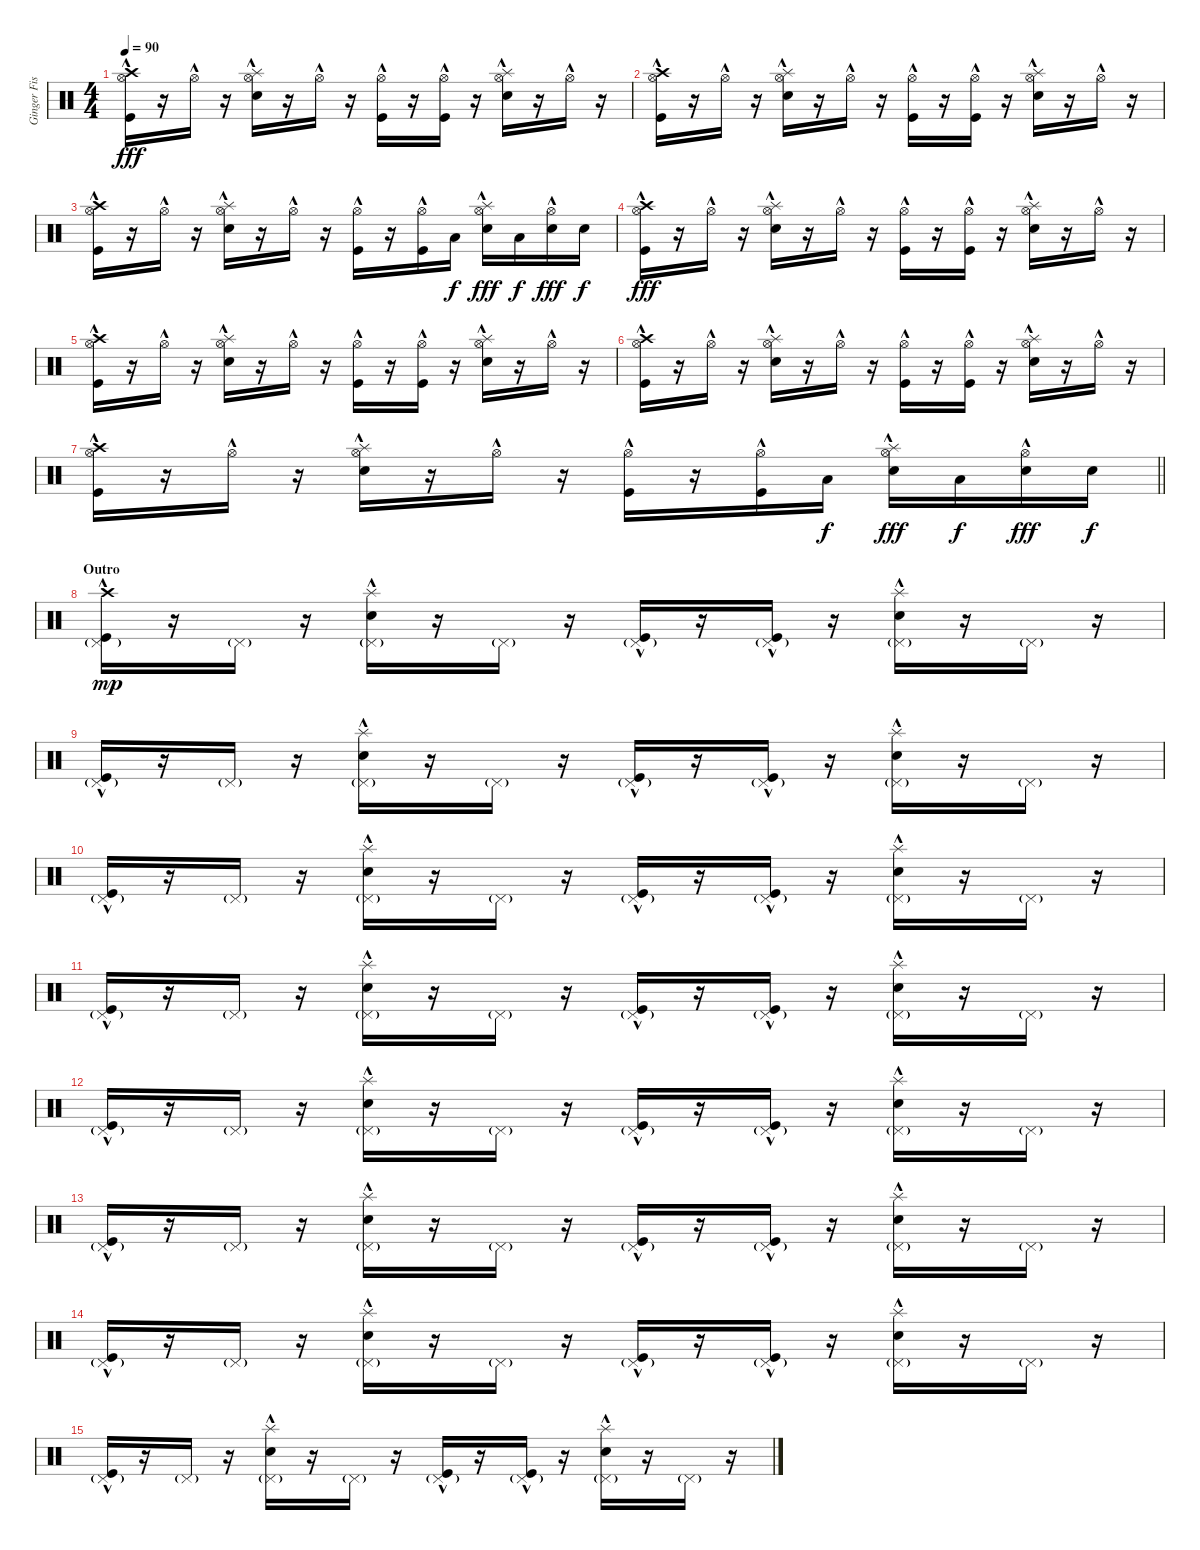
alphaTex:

\track ("Ginger Fish" "Ginger Fis") {instrument percussion}
\staff {score}
\articulation defaults
\ts (4 4)
\tempo 90
\clef neutral
\ks c
("Crash high (hit)" "Kick (hit)"{hac} "Hi-Hat (open)"{hac}).16{dy fff} r.16 "Hi-Hat (open)"{hac}.16 r.16 ("Splash (hit)"{hac} "Electric Snare (hit)"{hac} "Hi-Hat (open)"{hac}).16 r.16 "Hi-Hat (open)"{hac}.16 r.16 ("Kick (hit)"{hac} "Hi-Hat (open)"{hac}).16 r.16 ("Kick (hit)"{hac} "Hi-Hat (open)"{hac}).16 r.16 ("Splash (hit)"{hac} "Electric Snare (hit)"{hac} "Hi-Hat (open)"{hac}).16 r.16 "Hi-Hat (open)"{hac}.16 r.16 |
("Crash high (hit)" "Kick (hit)"{hac} "Hi-Hat (open)"{hac}).16 r.16 "Hi-Hat (open)"{hac}.16 r.16 ("Splash (hit)"{hac} "Electric Snare (hit)"{hac} "Hi-Hat (open)"{hac}).16 r.16 "Hi-Hat (open)"{hac}.16 r.16 ("Kick (hit)"{hac} "Hi-Hat (open)"{hac}).16 r.16 ("Kick (hit)"{hac} "Hi-Hat (open)"{hac}).16 r.16 ("Splash (hit)"{hac} "Electric Snare (hit)"{hac} "Hi-Hat (open)"{hac}).16 r.16 "Hi-Hat (open)"{hac}.16 r.16 |
("Crash high (hit)" "Kick (hit)"{hac} "Hi-Hat (open)"{hac}).16 r.16 "Hi-Hat (open)"{hac}.16 r.16 ("Splash (hit)"{hac} "Electric Snare (hit)"{hac} "Hi-Hat (open)"{hac}).16 r.16 "Hi-Hat (open)"{hac}.16 r.16 ("Kick (hit)"{hac} "Hi-Hat (open)"{hac}).16 r.16 ("Kick (hit)"{hac} "Hi-Hat (open)"{hac}).16 "Low Tom (hit)".16{dy f} ("Splash (hit)"{hac} "Electric Snare (hit)"{hac} "Hi-Hat (open)"{hac}).16{dy fff} "Low Floor Tom (hit)".16{dy f} ("Electric Snare (hit)"{hac} "Hi-Hat (open)"{hac}).16{dy fff} "Electric Snare (hit)".16{dy f} |
("Crash high (hit)" "Kick (hit)"{hac} "Hi-Hat (open)"{hac}).16{dy fff} r.16 "Hi-Hat (open)"{hac}.16 r.16 ("Splash (hit)"{hac} "Electric Snare (hit)"{hac} "Hi-Hat (open)"{hac}).16 r.16 "Hi-Hat (open)"{hac}.16 r.16 ("Kick (hit)"{hac} "Hi-Hat (open)"{hac}).16 r.16 ("Kick (hit)"{hac} "Hi-Hat (open)"{hac}).16 r.16 ("Splash (hit)"{hac} "Electric Snare (hit)"{hac} "Hi-Hat (open)"{hac}).16 r.16 "Hi-Hat (open)"{hac}.16 r.16 |
("Crash high (hit)" "Kick (hit)"{hac} "Hi-Hat (open)"{hac}).16 r.16 "Hi-Hat (open)"{hac}.16 r.16 ("Splash (hit)"{hac} "Electric Snare (hit)"{hac} "Hi-Hat (open)"{hac}).16 r.16 "Hi-Hat (open)"{hac}.16 r.16 ("Kick (hit)"{hac} "Hi-Hat (open)"{hac}).16 r.16 ("Kick (hit)"{hac} "Hi-Hat (open)"{hac}).16 r.16 ("Splash (hit)"{hac} "Electric Snare (hit)"{hac} "Hi-Hat (open)"{hac}).16 r.16 "Hi-Hat (open)"{hac}.16 r.16 |
("Crash high (hit)" "Kick (hit)"{hac} "Hi-Hat (open)"{hac}).16 r.16 "Hi-Hat (open)"{hac}.16 r.16 ("Splash (hit)"{hac} "Electric Snare (hit)"{hac} "Hi-Hat (open)"{hac}).16 r.16 "Hi-Hat (open)"{hac}.16 r.16 ("Kick (hit)"{hac} "Hi-Hat (open)"{hac}).16 r.16 ("Kick (hit)"{hac} "Hi-Hat (open)"{hac}).16 r.16 ("Splash (hit)"{hac} "Electric Snare (hit)"{hac} "Hi-Hat (open)"{hac}).16 r.16 "Hi-Hat (open)"{hac}.16 r.16 |
\barLineRight lightlight
("Crash high (hit)" "Kick (hit)"{hac} "Hi-Hat (open)"{hac}).16 r.16 "Hi-Hat (open)"{hac}.16 r.16 ("Splash (hit)"{hac} "Electric Snare (hit)"{hac} "Hi-Hat (open)"{hac}).16 r.16 "Hi-Hat (open)"{hac}.16 r.16 ("Kick (hit)"{hac} "Hi-Hat (open)"{hac}).16 r.16 ("Kick (hit)"{hac} "Hi-Hat (open)"{hac}).16 "Low Tom (hit)".16{dy f} ("Splash (hit)"{hac} "Electric Snare (hit)"{hac} "Hi-Hat (open)"{hac}).16{dy fff} "Low Floor Tom (hit)".16{dy f} ("Electric Snare (hit)"{hac} "Hi-Hat (open)"{hac}).16{dy fff} "Electric Snare (hit)".16{dy f} |
\section ("" "Outro")
("Crash high (hit)"{hac} "Kick (hit)"{hac} "Pedal Hi-Hat (hit)"{g}).16{dy mp} r.16 "Pedal Hi-Hat (hit)"{g}.16 r.16 ("Splash (hit)" "Electric Snare (hit)"{hac} "Pedal Hi-Hat (hit)"{g}).16 r.16 "Pedal Hi-Hat (hit)"{g}.16 r.16 ("Kick (hit)"{hac} "Pedal Hi-Hat (hit)"{g}).16 r.16 ("Kick (hit)"{hac} "Pedal Hi-Hat (hit)"{g}).16 r.16 ("Splash (hit)" "Electric Snare (hit)"{hac} "Pedal Hi-Hat (hit)"{g}).16 r.16 "Pedal Hi-Hat (hit)"{g}.16 r.16 |
("Kick (hit)"{hac} "Pedal Hi-Hat (hit)"{g}).16 r.16 "Pedal Hi-Hat (hit)"{g}.16 r.16 ("Splash (hit)" "Electric Snare (hit)"{hac} "Pedal Hi-Hat (hit)"{g}).16 r.16 "Pedal Hi-Hat (hit)"{g}.16 r.16 ("Kick (hit)"{hac} "Pedal Hi-Hat (hit)"{g}).16 r.16 ("Kick (hit)"{hac} "Pedal Hi-Hat (hit)"{g}).16 r.16 ("Splash (hit)" "Electric Snare (hit)"{hac} "Pedal Hi-Hat (hit)"{g}).16 r.16 "Pedal Hi-Hat (hit)"{g}.16 r.16 |
("Kick (hit)"{hac} "Pedal Hi-Hat (hit)"{g}).16 r.16 "Pedal Hi-Hat (hit)"{g}.16 r.16 ("Splash (hit)" "Electric Snare (hit)"{hac} "Pedal Hi-Hat (hit)"{g}).16 r.16 "Pedal Hi-Hat (hit)"{g}.16 r.16 ("Kick (hit)"{hac} "Pedal Hi-Hat (hit)"{g}).16 r.16 ("Kick (hit)"{hac} "Pedal Hi-Hat (hit)"{g}).16 r.16 ("Splash (hit)" "Electric Snare (hit)"{hac} "Pedal Hi-Hat (hit)"{g}).16 r.16 "Pedal Hi-Hat (hit)"{g}.16 r.16 |
("Kick (hit)"{hac} "Pedal Hi-Hat (hit)"{g}).16 r.16 "Pedal Hi-Hat (hit)"{g}.16 r.16 ("Splash (hit)" "Electric Snare (hit)"{hac} "Pedal Hi-Hat (hit)"{g}).16 r.16 "Pedal Hi-Hat (hit)"{g}.16 r.16 ("Kick (hit)"{hac} "Pedal Hi-Hat (hit)"{g}).16 r.16 ("Kick (hit)"{hac} "Pedal Hi-Hat (hit)"{g}).16 r.16 ("Splash (hit)" "Electric Snare (hit)"{hac} "Pedal Hi-Hat (hit)"{g}).16 r.16 "Pedal Hi-Hat (hit)"{g}.16 r.16 |
("Kick (hit)"{hac} "Pedal Hi-Hat (hit)"{g}).16 r.16 "Pedal Hi-Hat (hit)"{g}.16 r.16 ("Splash (hit)" "Electric Snare (hit)"{hac} "Pedal Hi-Hat (hit)"{g}).16 r.16 "Pedal Hi-Hat (hit)"{g}.16 r.16 ("Kick (hit)"{hac} "Pedal Hi-Hat (hit)"{g}).16 r.16 ("Kick (hit)"{hac} "Pedal Hi-Hat (hit)"{g}).16 r.16 ("Splash (hit)" "Electric Snare (hit)"{hac} "Pedal Hi-Hat (hit)"{g}).16 r.16 "Pedal Hi-Hat (hit)"{g}.16 r.16 |
("Kick (hit)"{hac} "Pedal Hi-Hat (hit)"{g}).16 r.16 "Pedal Hi-Hat (hit)"{g}.16 r.16 ("Splash (hit)" "Electric Snare (hit)"{hac} "Pedal Hi-Hat (hit)"{g}).16 r.16 "Pedal Hi-Hat (hit)"{g}.16 r.16 ("Kick (hit)"{hac} "Pedal Hi-Hat (hit)"{g}).16 r.16 ("Kick (hit)"{hac} "Pedal Hi-Hat (hit)"{g}).16 r.16 ("Splash (hit)" "Electric Snare (hit)"{hac} "Pedal Hi-Hat (hit)"{g}).16 r.16 "Pedal Hi-Hat (hit)"{g}.16 r.16 |
("Kick (hit)"{hac} "Pedal Hi-Hat (hit)"{g}).16 r.16 "Pedal Hi-Hat (hit)"{g}.16 r.16 ("Splash (hit)" "Electric Snare (hit)"{hac} "Pedal Hi-Hat (hit)"{g}).16 r.16 "Pedal Hi-Hat (hit)"{g}.16 r.16 ("Kick (hit)"{hac} "Pedal Hi-Hat (hit)"{g}).16 r.16 ("Kick (hit)"{hac} "Pedal Hi-Hat (hit)"{g}).16 r.16 ("Splash (hit)" "Electric Snare (hit)"{hac} "Pedal Hi-Hat (hit)"{g}).16 r.16 "Pedal Hi-Hat (hit)"{g}.16 r.16 |
("Kick (hit)"{hac} "Pedal Hi-Hat (hit)"{g}).16 r.16 "Pedal Hi-Hat (hit)"{g}.16 r.16 ("Splash (hit)" "Electric Snare (hit)"{hac} "Pedal Hi-Hat (hit)"{g}).16 r.16 "Pedal Hi-Hat (hit)"{g}.16 r.16 ("Kick (hit)"{hac} "Pedal Hi-Hat (hit)"{g}).16 r.16 ("Kick (hit)"{hac} "Pedal Hi-Hat (hit)"{g}).16 r.16 ("Splash (hit)" "Electric Snare (hit)"{hac} "Pedal Hi-Hat (hit)"{g}).16 r.16 "Pedal Hi-Hat (hit)"{g}.16 r.16
